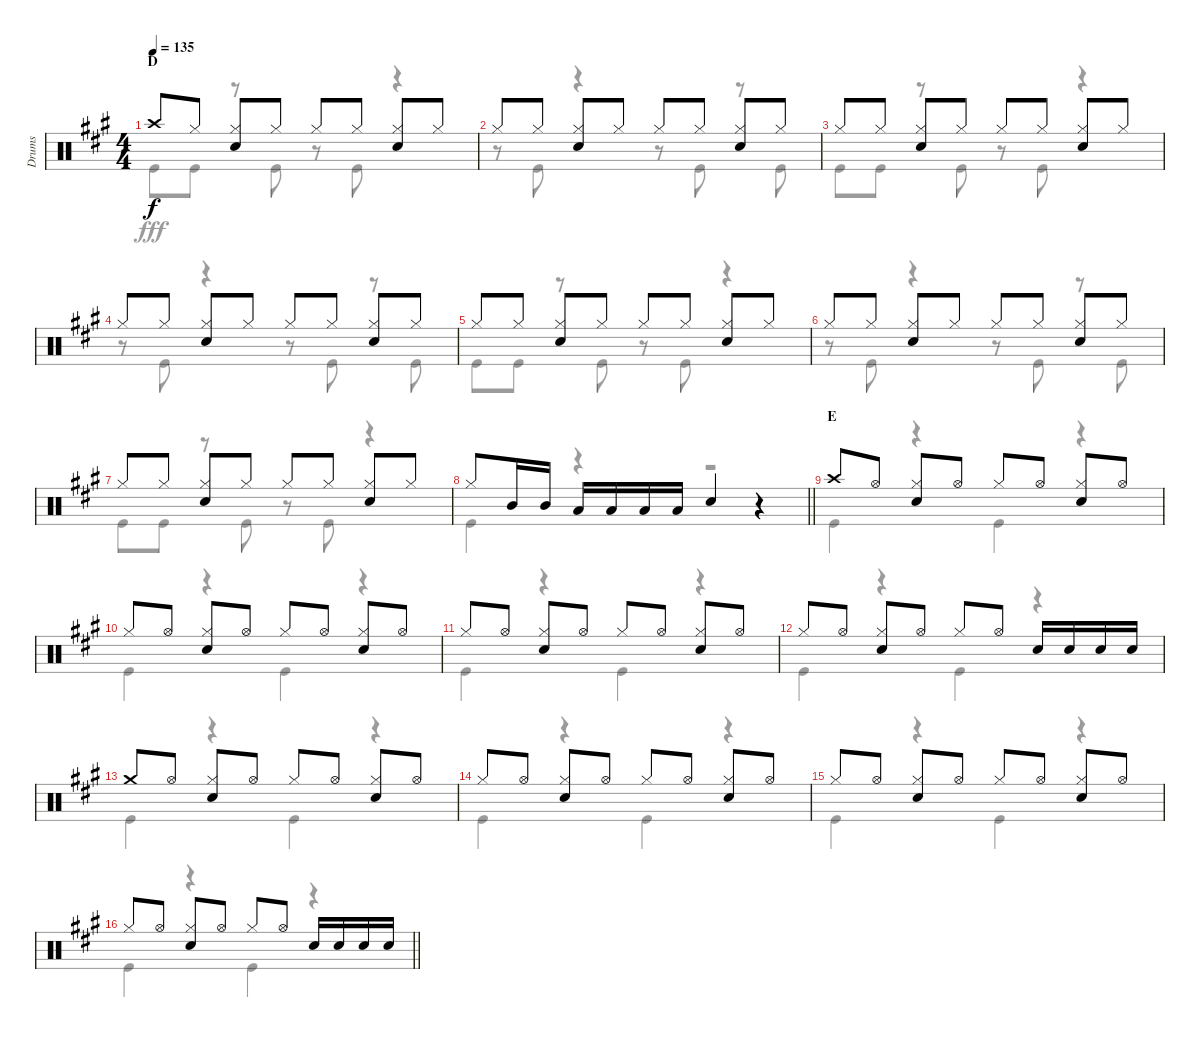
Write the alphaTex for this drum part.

\track ("Drums" "Drums") {instrument percussion}
\staff {score}
\articulation defaults
\voice
\ts (4 4)
\section ("" "D")
\tempo 135
\clef neutral
\ks a "Crash high (hit)".8{dy f} "Hi-Hat (closed)".8
("Hi-Hat (closed)" "Snare (hit) 2").8 "Hi-Hat (closed)".8 "Hi-Hat (closed)".8 "Hi-Hat (closed)".8 ("Hi-Hat (closed)" "Snare (hit) 2").8 "Hi-Hat (closed)".8 |
"Hi-Hat (closed)".8 "Hi-Hat (closed)".8 ("Hi-Hat (closed)" "Snare (hit) 2").8 "Hi-Hat (closed)".8 "Hi-Hat (closed)".8 "Hi-Hat (closed)".8 ("Hi-Hat (closed)" "Snare (hit) 2").8 "Hi-Hat (closed)".8 |
"Hi-Hat (closed)".8 "Hi-Hat (closed)".8 ("Hi-Hat (closed)" "Snare (hit) 2").8 "Hi-Hat (closed)".8 "Hi-Hat (closed)".8 "Hi-Hat (closed)".8 ("Hi-Hat (closed)" "Snare (hit) 2").8 "Hi-Hat (closed)".8 |
"Hi-Hat (closed)".8 "Hi-Hat (closed)".8 ("Hi-Hat (closed)" "Snare (hit) 2").8 "Hi-Hat (closed)".8 "Hi-Hat (closed)".8 "Hi-Hat (closed)".8 ("Hi-Hat (closed)" "Snare (hit) 2").8 "Hi-Hat (closed)".8 |
"Hi-Hat (closed)".8 "Hi-Hat (closed)".8 ("Hi-Hat (closed)" "Snare (hit) 2").8 "Hi-Hat (closed)".8 "Hi-Hat (closed)".8 "Hi-Hat (closed)".8 ("Hi-Hat (closed)" "Snare (hit) 2").8 "Hi-Hat (closed)".8 |
"Hi-Hat (closed)".8 "Hi-Hat (closed)".8 ("Hi-Hat (closed)" "Snare (hit) 2").8 "Hi-Hat (closed)".8 "Hi-Hat (closed)".8 "Hi-Hat (closed)".8 ("Hi-Hat (closed)" "Snare (hit) 2").8 "Hi-Hat (closed)".8 |
"Hi-Hat (closed)".8 "Hi-Hat (closed)".8 ("Hi-Hat (closed)" "Snare (hit) 2").8 "Hi-Hat (closed)".8 "Hi-Hat (closed)".8 "Hi-Hat (closed)".8 ("Hi-Hat (closed)" "Snare (hit) 2").8 "Hi-Hat (closed)".8 |
\barLineRight lightlight "Hi-Hat (closed)".8 "Mid Tom (hit)".16 "Mid Tom (hit)".16 "Low Tom (hit)".16 "Low Tom (hit)".16 "Low Tom (hit)".16 "Low Tom (hit)".16 "Snare (hit) 2".4
r.4 |
\section ("" "E")
"Crash high (hit)".8 "Hi-Hat (open)".8 ("Hi-Hat (closed)" "Snare (hit) 2").8 "Hi-Hat (open)".8 "Hi-Hat (closed)".8 "Hi-Hat (open)".8 ("Hi-Hat (closed)" "Snare (hit) 2").8 "Hi-Hat (open)".8 |
"Hi-Hat (closed)".8 "Hi-Hat (open)".8 ("Hi-Hat (closed)" "Snare (hit) 2").8 "Hi-Hat (open)".8 "Hi-Hat (closed)".8 "Hi-Hat (open)".8 ("Hi-Hat (closed)" "Snare (hit) 2").8 "Hi-Hat (open)".8 |
"Hi-Hat (closed)".8 "Hi-Hat (open)".8 ("Hi-Hat (closed)" "Snare (hit) 2").8 "Hi-Hat (open)".8 "Hi-Hat (closed)".8 "Hi-Hat (open)".8 ("Hi-Hat (closed)" "Snare (hit) 2").8 "Hi-Hat (open)".8 |
"Hi-Hat (closed)".8 "Hi-Hat (open)".8 ("Hi-Hat (closed)" "Snare (hit) 2").8 "Hi-Hat (open)".8 "Hi-Hat (closed)".8 "Hi-Hat (open)".8 "Snare (hit) 2".16 "Snare (hit) 2".16 "Snare (hit) 2".16 "Snare (hit) 2".16 |
"Crash medium (hit)".8 "Hi-Hat (open)".8 ("Hi-Hat (closed)" "Snare (hit) 2").8 "Hi-Hat (open)".8 "Hi-Hat (closed)".8 "Hi-Hat (open)".8 ("Hi-Hat (closed)" "Snare (hit) 2").8 "Hi-Hat (open)".8 |
"Hi-Hat (closed)".8 "Hi-Hat (open)".8 ("Hi-Hat (closed)" "Snare (hit) 2").8 "Hi-Hat (open)".8 "Hi-Hat (closed)".8 "Hi-Hat (open)".8 ("Hi-Hat (closed)" "Snare (hit) 2").8 "Hi-Hat (open)".8 |
"Hi-Hat (closed)".8 "Hi-Hat (open)".8 ("Hi-Hat (closed)" "Snare (hit) 2").8 "Hi-Hat (open)".8 "Hi-Hat (closed)".8 "Hi-Hat (open)".8 ("Hi-Hat (closed)" "Snare (hit) 2").8 "Hi-Hat (open)".8 |
\barLineRight lightlight "Hi-Hat (closed)".8 "Hi-Hat (open)".8
("Hi-Hat (closed)" "Snare (hit) 2").8 "Hi-Hat (open)".8 "Hi-Hat (closed)".8 "Hi-Hat (open)".8 "Snare (hit) 2".16 "Snare (hit) 2".16 "Snare (hit) 2".16 "Snare (hit) 2".16
\voice
\clef neutral
\ottava regular
\simile none
\ks a "Kick (hit)".8{dy fff} "Kick (hit)".8
r.8 "Kick (hit)".8 r.8 "Kick (hit)".8 r.4 |
r.8 "Kick (hit)".8 r.4 r.8 "Kick (hit)".8 r.8 "Kick (hit)".8 |
"Kick (hit)".8 "Kick (hit)".8 r.8 "Kick (hit)".8 r.8 "Kick (hit)".8 r.4 |
r.8 "Kick (hit)".8 r.4 r.8 "Kick (hit)".8 r.8 "Kick (hit)".8 |
"Kick (hit)".8 "Kick (hit)".8 r.8 "Kick (hit)".8 r.8 "Kick (hit)".8 r.4 |
r.8 "Kick (hit)".8 r.4 r.8 "Kick (hit)".8 r.8 "Kick (hit)".8 |
"Kick (hit)".8 "Kick (hit)".8 r.8 "Kick (hit)".8 r.8 "Kick (hit)".8 r.4 |
\barLineRight lightlight "Kick (hit)".4
r.4 r.2 |
"Kick (hit)".4 r.4 "Kick (hit)".4 r.4 |
"Kick (hit)".4 r.4 "Kick (hit)".4 r.4 |
"Kick (hit)".4 r.4 "Kick (hit)".4 r.4 |
"Kick (hit)".4 r.4 "Kick (hit)".4 r.4 |
"Kick (hit)".4 r.4 "Kick (hit)".4 r.4 |
"Kick (hit)".4 r.4 "Kick (hit)".4 r.4 |
"Kick (hit)".4 r.4 "Kick (hit)".4 r.4 |
\barLineRight lightlight "Kick (hit)".4
r.4 "Kick (hit)".4 r.4
